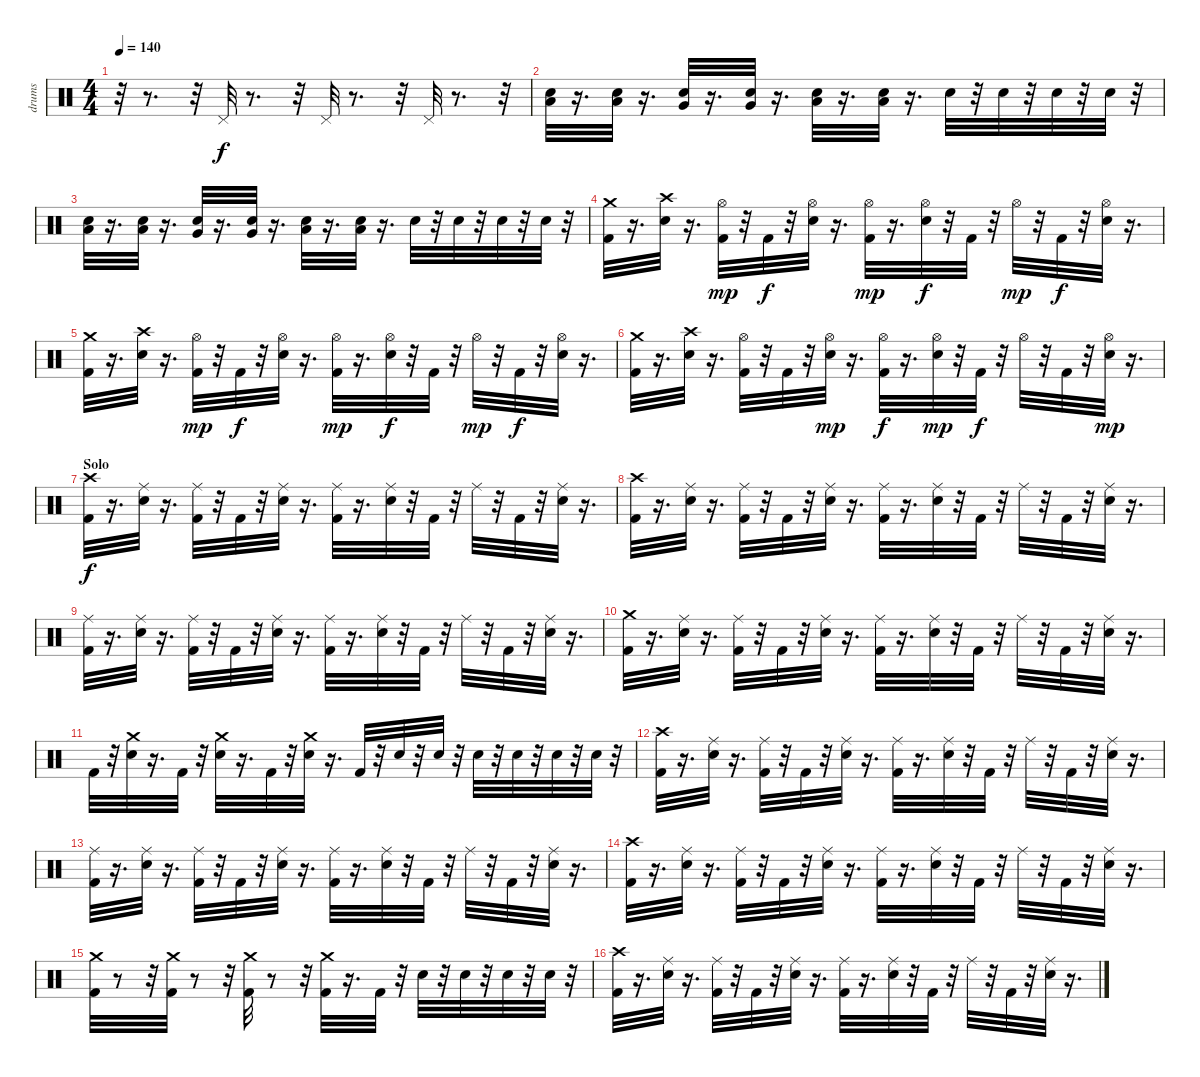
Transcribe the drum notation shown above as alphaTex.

\track ("drums" "drums") {instrument percussion}
\staff {score}
\articulation defaults
\ts (4 4)
\tempo 140
\clef neutral
\ks c
r.32{dy f} r.8{d} r.32 "Pedal Hi-Hat (hit)".32 r.8{d} r.32 "Pedal Hi-Hat (hit)".32 r.8{d} r.32 "Pedal Hi-Hat (hit)".32 r.8{d} r.32 |
("Low Tom (hit)" "Electric Snare (hit)").32 r.16{d} ("Electric Snare (hit)" "Low Tom (hit)").32 r.16{d} ("Electric Snare (hit)" "Very Low Tom (hit)").32 r.16{d} ("Electric Snare (hit)" "Very Low Tom (hit)").32 r.16{d} ("Electric Snare (hit)" "Low Floor Tom (hit)").32 r.16{d} ("Low Floor Tom (hit)" "Electric Snare (hit)").32 r.16{d} "Electric Snare (hit)".32 r.32 "Electric Snare (hit)".32 r.32 "Electric Snare (hit)".32 r.32 "Electric Snare (hit)".32 r.32 |
("Low Tom (hit)" "Electric Snare (hit)").32 r.16{d} ("Electric Snare (hit)" "Low Tom (hit)").32 r.16{d} ("Electric Snare (hit)" "Very Low Tom (hit)").32 r.16{d} ("Electric Snare (hit)" "Very Low Tom (hit)").32 r.16{d} ("Electric Snare (hit)" "Low Floor Tom (hit)").32 r.16{d} ("Low Floor Tom (hit)" "Electric Snare (hit)").32 r.16{d} "Electric Snare (hit)".32 r.32 "Electric Snare (hit)".32 r.32 "Electric Snare (hit)".32 r.32 "Electric Snare (hit)".32 r.32 |
("Crash medium (hit)" "Kick (hit) 2").32 r.16{d} ("Crash high (hit)" "Electric Snare (hit)").32 r.16{d} ("Hi-Hat (open)" "Kick (hit) 2").32{dy mp} r.32 "Kick (hit) 2".32{dy f} r.32 ("Hi-Hat (open)" "Electric Snare (hit)").32 r.16{d} ("Hi-Hat (open)" "Kick (hit) 2").32{dy mp} r.16{d} ("Hi-Hat (open)" "Electric Snare (hit)").32{dy f} r.32 "Kick (hit) 2".32 r.32 "Hi-Hat (open)".32{dy mp} r.32 "Kick (hit) 2".32{dy f} r.32 ("Hi-Hat (open)" "Electric Snare (hit)").32 r.16{d} |
("Crash medium (hit)" "Kick (hit) 2").32 r.16{d} ("Electric Snare (hit)" "Crash high (hit)").32 r.16{d} ("Hi-Hat (open)" "Kick (hit) 2").32{dy mp} r.32 "Kick (hit) 2".32{dy f} r.32 ("Hi-Hat (open)" "Electric Snare (hit)").32 r.16{d} ("Hi-Hat (open)" "Kick (hit) 2").32{dy mp} r.16{d} ("Hi-Hat (open)" "Electric Snare (hit)").32{dy f} r.32 "Kick (hit) 2".32 r.32 "Hi-Hat (open)".32{dy mp} r.32 "Kick (hit) 2".32{dy f} r.32 ("Hi-Hat (open)" "Electric Snare (hit)").32 r.16{d} |
("Kick (hit) 2" "Crash medium (hit)").32 r.16{d} ("Electric Snare (hit)" "Crash high (hit)").32 r.16{d} ("Hi-Hat (open)" "Kick (hit) 2").32 r.32 "Kick (hit) 2".32 r.32 ("Electric Snare (hit)" "Hi-Hat (open)").32{dy mp} r.16{d} ("Hi-Hat (open)" "Kick (hit) 2").32{dy f} r.16{d} ("Electric Snare (hit)" "Hi-Hat (open)").32{dy mp} r.32 "Kick (hit) 2".32{dy f} r.32 "Hi-Hat (open)".32 r.32 "Kick (hit) 2".32 r.32 ("Electric Snare (hit)" "Hi-Hat (open)").32{dy mp} r.16{d} |
\section ("" "Solo")
("Crash high (hit)" "Kick (hit) 2").32{dy f} r.16{d} ("Ride (middle)" "Electric Snare (hit)").32 r.16{d} ("Ride (middle)" "Kick (hit) 2").32 r.32 "Kick (hit) 2".32 r.32 ("Ride (middle)" "Electric Snare (hit)").32 r.16{d} ("Ride (middle)" "Kick (hit) 2").32 r.16{d} ("Ride (middle)" "Electric Snare (hit)").32 r.32 "Kick (hit) 2".32 r.32 "Ride (middle)".32 r.32 "Kick (hit) 2".32 r.32 ("Ride (middle)" "Electric Snare (hit)").32 r.16{d} |
("Crash high (hit)" "Kick (hit) 2").32 r.16{d} ("Ride (middle)" "Electric Snare (hit)").32 r.16{d} ("Ride (middle)" "Kick (hit) 2").32 r.32 "Kick (hit) 2".32 r.32 ("Ride (middle)" "Electric Snare (hit)").32 r.16{d} ("Ride (middle)" "Kick (hit) 2").32 r.16{d} ("Ride (middle)" "Electric Snare (hit)").32 r.32 "Kick (hit) 2".32 r.32 "Ride (middle)".32 r.32 "Kick (hit) 2".32 r.32 ("Ride (middle)" "Electric Snare (hit)").32 r.16{d} |
("Ride (middle)" "Kick (hit) 2").32 r.16{d} ("Ride (middle)" "Electric Snare (hit)").32 r.16{d} ("Ride (middle)" "Kick (hit) 2").32 r.32 "Kick (hit) 2".32 r.32 ("Ride (middle)" "Electric Snare (hit)").32 r.16{d} ("Ride (middle)" "Kick (hit) 2").32 r.16{d} ("Ride (middle)" "Electric Snare (hit)").32 r.32 "Kick (hit) 2".32 r.32 "Ride (middle)".32 r.32 "Kick (hit) 2".32 r.32 ("Ride (middle)" "Electric Snare (hit)").32 r.16{d} |
("Crash medium (hit)" "Kick (hit) 2").32 r.16{d} ("Ride (middle)" "Electric Snare (hit)").32 r.16{d} ("Ride (middle)" "Kick (hit) 2").32 r.32 "Kick (hit) 2".32 r.32 ("Ride (middle)" "Electric Snare (hit)").32 r.16{d} ("Ride (middle)" "Kick (hit) 2").32 r.16{d} ("Ride (middle)" "Electric Snare (hit)").32 r.32 "Kick (hit) 2".32 r.32 "Ride (middle)".32 r.32 "Kick (hit) 2".32 r.32 ("Ride (middle)" "Electric Snare (hit)").32 r.16{d} |
"Kick (hit) 2".32 r.32 ("Crash medium (hit)" "Electric Snare (hit)").32 r.16{d} "Kick (hit) 2".32 r.32 ("Crash medium (hit)" "Electric Snare (hit)").32 r.16{d} "Kick (hit) 2".32 r.32 ("Crash medium (hit)" "Electric Snare (hit)").32 r.16{d} "Kick (hit) 2".32 r.32 "Electric Snare (hit)".32 r.32 "Electric Snare (hit)".32 r.32 "Electric Snare (hit)".32 r.32 "Electric Snare (hit)".32 r.32 "Electric Snare (hit)".32 r.32 "Electric Snare (hit)".32 r.32 |
("Crash high (hit)" "Kick (hit) 2").32 r.16{d} ("Ride (middle)" "Electric Snare (hit)").32 r.16{d} ("Ride (middle)" "Kick (hit) 2").32 r.32 "Kick (hit) 2".32 r.32 ("Ride (middle)" "Electric Snare (hit)").32 r.16{d} ("Ride (middle)" "Kick (hit) 2").32 r.16{d} ("Ride (middle)" "Electric Snare (hit)").32 r.32 "Kick (hit) 2".32 r.32 "Ride (middle)".32 r.32 "Kick (hit) 2".32 r.32 ("Ride (middle)" "Electric Snare (hit)").32 r.16{d} |
("Ride (middle)" "Kick (hit) 2").32 r.16{d} ("Ride (middle)" "Electric Snare (hit)").32 r.16{d} ("Ride (middle)" "Kick (hit) 2").32 r.32 "Kick (hit) 2".32 r.32 ("Ride (middle)" "Electric Snare (hit)").32 r.16{d} ("Ride (middle)" "Kick (hit) 2").32 r.16{d} ("Ride (middle)" "Electric Snare (hit)").32 r.32 "Kick (hit) 2".32 r.32 "Ride (middle)".32 r.32 "Kick (hit) 2".32 r.32 ("Ride (middle)" "Electric Snare (hit)").32 r.16{d} |
("Crash high (hit)" "Kick (hit) 2").32 r.16{d} ("Ride (middle)" "Electric Snare (hit)").32 r.16{d} ("Ride (middle)" "Kick (hit) 2").32 r.32 "Kick (hit) 2".32 r.32 ("Ride (middle)" "Electric Snare (hit)").32 r.16{d} ("Ride (middle)" "Kick (hit) 2").32 r.16{d} ("Ride (middle)" "Electric Snare (hit)").32 r.32 "Kick (hit) 2".32 r.32 "Ride (middle)".32 r.32 "Kick (hit) 2".32 r.32 ("Ride (middle)" "Electric Snare (hit)").32 r.16{d} |
("Crash medium (hit)" "Kick (hit) 2").32 r.8 r.32 ("Crash medium (hit)" "Kick (hit) 2").32 r.8 r.32 ("Crash medium (hit)" "Kick (hit) 2").32 r.8 r.32 ("Crash medium (hit)" "Kick (hit) 2").32 r.16{d} "Kick (hit) 2".32 r.32 "Electric Snare (hit)".32 r.32 "Electric Snare (hit)".32 r.32 "Electric Snare (hit)".32 r.32 "Electric Snare (hit)".32 r.32 |
("Crash high (hit)" "Kick (hit) 2").32 r.16{d} ("Ride (middle)" "Electric Snare (hit)").32 r.16{d} ("Ride (middle)" "Kick (hit) 2").32 r.32 "Kick (hit) 2".32 r.32 ("Ride (middle)" "Electric Snare (hit)").32 r.16{d} ("Ride (middle)" "Kick (hit) 2").32 r.16{d} ("Ride (middle)" "Electric Snare (hit)").32 r.32 "Kick (hit) 2".32 r.32 "Ride (middle)".32 r.32 "Kick (hit) 2".32 r.32 ("Ride (middle)" "Electric Snare (hit)").32 r.16{d}
